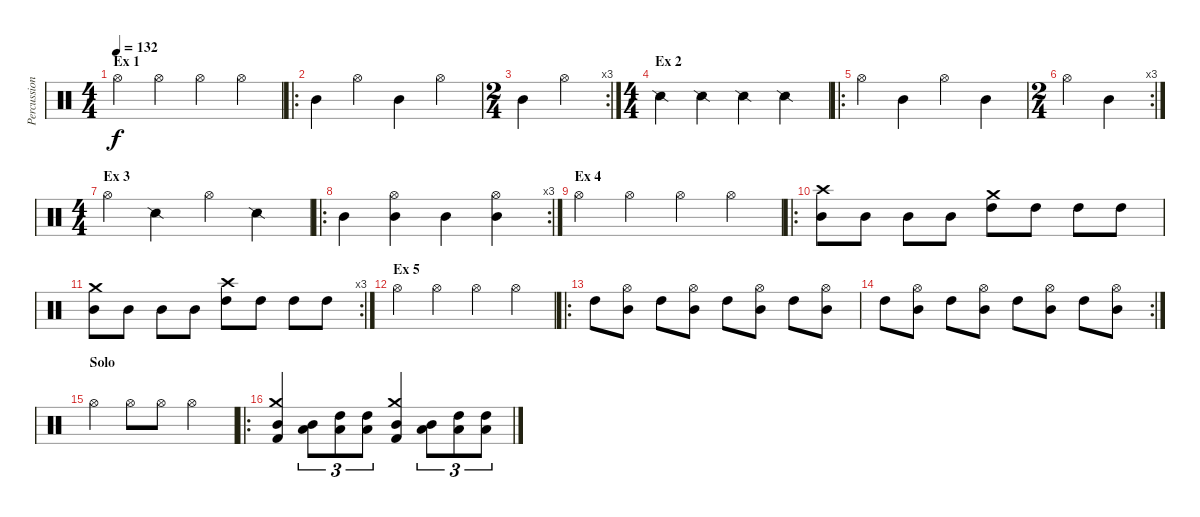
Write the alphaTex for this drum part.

\track ("Percussion" "Percussion") {instrument percussion}
\staff {score}
\articulation defaults
\ts (4 4)
\section ("" "Ex 1")
\tempo 132
\clef neutral
\ks c "Hi-Hat (open)".4{dy f} "Hi-Hat (open)".4 "Hi-Hat (open)".4 "Hi-Hat (open)".4
|
\ro "Mid Tom (hit)".4 "Hi-Hat (open)".4 "Mid Tom (hit)".4 "Hi-Hat (open)".4
|
\rc 3
\ts (2 4)
"Mid Tom (hit)".4 "Hi-Hat (open)".4 |
\ts (4 4)
\section ("" "Ex 2")
"Snare (side stick) 2".4 "Snare (side stick) 2".4 "Snare (side stick) 2".4 "Snare (side stick) 2".4 |
\ro "Hi-Hat (open)".4 "Mid Tom (hit)".4 "Hi-Hat (open)".4 "Mid Tom (hit)".4
|
\rc 3
\ts (2 4)
"Hi-Hat (open)".4 "Mid Tom (hit)".4 |
\ts (4 4)
\section ("" "Ex 3")
"Hi-Hat (open)".4 "Snare (side stick) 2".4 "Hi-Hat (open)".4 "Snare (side stick) 2".4 |
\ro
\rc 3 "Mid Tom (hit)".4
("Mid Tom (hit)" "Hi-Hat (open)").4 "Mid Tom (hit)".4 ("Mid Tom (hit)" "Hi-Hat (open)").4 |
\section ("" "Ex 4")
"Hi-Hat (open)".4 "Hi-Hat (open)".4 "Hi-Hat (open)".4 "Hi-Hat (open)".4 |
\ro
("Mid Tom (hit)" "Crash high (hit)").8 "Mid Tom (hit)".8 "Mid Tom (hit)".8 "Mid Tom (hit)".8 ("High Tom (hit)" "Crash medium (hit)").8 "High Tom (hit)".8 "High Tom (hit)".8 "High Tom (hit)".8 |
\rc 3
("Mid Tom (hit)" "Crash medium (hit)").8 "Mid Tom (hit)".8 "Mid Tom (hit)".8 "Mid Tom (hit)".8 ("High Tom (hit)" "Crash high (hit)").8 "High Tom (hit)".8 "High Tom (hit)".8 "High Tom (hit)".8 |
\section ("" "Ex 5")
"Hi-Hat (open)".4 "Hi-Hat (open)".4 "Hi-Hat (open)".4 "Hi-Hat (open)".4 |
\ro "High Tom (hit)".8
("Mid Tom (hit)" "Hi-Hat (open)").8 "High Tom (hit)".8 ("Mid Tom (hit)" "Hi-Hat (open)").8 "High Tom (hit)".8 ("Mid Tom (hit)" "Hi-Hat (open)").8 "High Tom (hit)".8 ("Mid Tom (hit)" "Hi-Hat (open)").8 |
\rc 2 "High Tom (hit)".8
("Mid Tom (hit)" "Hi-Hat (open)").8 "High Tom (hit)".8 ("Mid Tom (hit)" "Hi-Hat (open)").8 "High Tom (hit)".8 ("Mid Tom (hit)" "Hi-Hat (open)").8 "High Tom (hit)".8 ("Mid Tom (hit)" "Hi-Hat (open)").8 |
\section ("" "Solo")
"Hi-Hat (open)".4 "Hi-Hat (open)".8 "Hi-Hat (open)".8 "Hi-Hat (open)".2 |
\ro
("Mid Tom (hit)" "Kick (hit) 2" "Crash medium (hit)").4 ("Low Tom (hit)" "Mid Tom (hit)").8{tu (3 2)} ("Low Tom (hit)" "High Tom (hit)").8{tu (3 2)} ("Low Tom (hit)" "High Tom (hit)").8{tu (3 2)} ("Mid Tom (hit)" "Kick (hit) 2" "Crash medium (hit)").4 ("Low Tom (hit)" "Mid Tom (hit)").8{tu (3 2)} ("Low Tom (hit)" "High Tom (hit)").8{tu (3 2)} ("Low Tom (hit)" "High Tom (hit)").8{tu (3 2)}
